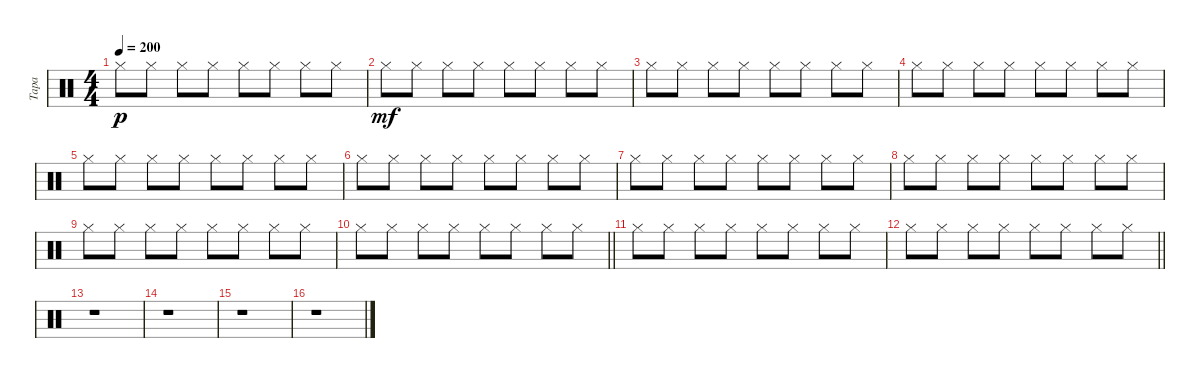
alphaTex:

\track ("Tapa" "Tapa") {instrument percussion}
\staff {score}
\articulation defaults
\ts (4 4)
\tempo 200
\clef neutral
\ks c "Hi-Hat (closed)".8{dy p} "Hi-Hat (closed)".8 "Hi-Hat (closed)".8 "Hi-Hat (closed)".8 "Hi-Hat (closed)".8 "Hi-Hat (closed)".8 "Hi-Hat (closed)".8 "Hi-Hat (closed)".8
|
"Hi-Hat (closed)".8{dy mf} "Hi-Hat (closed)".8 "Hi-Hat (closed)".8 "Hi-Hat (closed)".8 "Hi-Hat (closed)".8 "Hi-Hat (closed)".8 "Hi-Hat (closed)".8 "Hi-Hat (closed)".8 |
"Hi-Hat (closed)".8 "Hi-Hat (closed)".8 "Hi-Hat (closed)".8 "Hi-Hat (closed)".8 "Hi-Hat (closed)".8 "Hi-Hat (closed)".8 "Hi-Hat (closed)".8 "Hi-Hat (closed)".8 |
"Hi-Hat (closed)".8 "Hi-Hat (closed)".8 "Hi-Hat (closed)".8 "Hi-Hat (closed)".8 "Hi-Hat (closed)".8 "Hi-Hat (closed)".8 "Hi-Hat (closed)".8 "Hi-Hat (closed)".8 |
"Hi-Hat (closed)".8 "Hi-Hat (closed)".8 "Hi-Hat (closed)".8 "Hi-Hat (closed)".8 "Hi-Hat (closed)".8 "Hi-Hat (closed)".8 "Hi-Hat (closed)".8 "Hi-Hat (closed)".8 |
"Hi-Hat (closed)".8 "Hi-Hat (closed)".8 "Hi-Hat (closed)".8 "Hi-Hat (closed)".8 "Hi-Hat (closed)".8 "Hi-Hat (closed)".8 "Hi-Hat (closed)".8 "Hi-Hat (closed)".8 |
"Hi-Hat (closed)".8 "Hi-Hat (closed)".8 "Hi-Hat (closed)".8 "Hi-Hat (closed)".8 "Hi-Hat (closed)".8 "Hi-Hat (closed)".8 "Hi-Hat (closed)".8 "Hi-Hat (closed)".8 |
"Hi-Hat (closed)".8 "Hi-Hat (closed)".8 "Hi-Hat (closed)".8 "Hi-Hat (closed)".8 "Hi-Hat (closed)".8 "Hi-Hat (closed)".8 "Hi-Hat (closed)".8 "Hi-Hat (closed)".8 |
"Hi-Hat (closed)".8 "Hi-Hat (closed)".8 "Hi-Hat (closed)".8 "Hi-Hat (closed)".8 "Hi-Hat (closed)".8 "Hi-Hat (closed)".8 "Hi-Hat (closed)".8 "Hi-Hat (closed)".8 |
\barLineRight lightlight "Hi-Hat (closed)".8 "Hi-Hat (closed)".8 "Hi-Hat (closed)".8 "Hi-Hat (closed)".8 "Hi-Hat (closed)".8 "Hi-Hat (closed)".8 "Hi-Hat (closed)".8 "Hi-Hat (closed)".8
|
"Hi-Hat (closed)".8 "Hi-Hat (closed)".8 "Hi-Hat (closed)".8 "Hi-Hat (closed)".8 "Hi-Hat (closed)".8 "Hi-Hat (closed)".8 "Hi-Hat (closed)".8 "Hi-Hat (closed)".8 |
\barLineRight lightlight "Hi-Hat (closed)".8 "Hi-Hat (closed)".8 "Hi-Hat (closed)".8 "Hi-Hat (closed)".8 "Hi-Hat (closed)".8 "Hi-Hat (closed)".8 "Hi-Hat (closed)".8 "Hi-Hat (closed)".8
|
r.1 |
r.1 |
r.1 |
r.1
